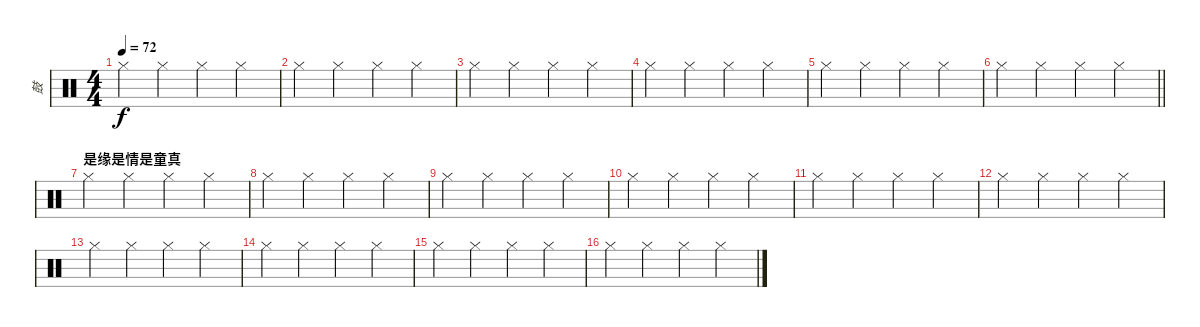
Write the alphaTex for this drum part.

\track ("鼓" "鼓") {instrument percussion}
\staff {score}
\articulation defaults
\ts (4 4)
\tempo 72
\clef neutral
\ks c "Hi-Hat (closed)".4{dy f} "Hi-Hat (closed)".4 "Hi-Hat (closed)".4 "Hi-Hat (closed)".4
|
"Hi-Hat (closed)".4 "Hi-Hat (closed)".4 "Hi-Hat (closed)".4 "Hi-Hat (closed)".4 |
"Hi-Hat (closed)".4 "Hi-Hat (closed)".4 "Hi-Hat (closed)".4 "Hi-Hat (closed)".4 |
"Hi-Hat (closed)".4 "Hi-Hat (closed)".4 "Hi-Hat (closed)".4 "Hi-Hat (closed)".4 |
"Hi-Hat (closed)".4 "Hi-Hat (closed)".4 "Hi-Hat (closed)".4 "Hi-Hat (closed)".4 |
\barLineRight lightlight "Hi-Hat (closed)".4 "Hi-Hat (closed)".4 "Hi-Hat (closed)".4 "Hi-Hat (closed)".4
|
\section ("" "是缘是情是童真")
"Hi-Hat (closed)".4 "Hi-Hat (closed)".4 "Hi-Hat (closed)".4 "Hi-Hat (closed)".4 |
"Hi-Hat (closed)".4 "Hi-Hat (closed)".4 "Hi-Hat (closed)".4 "Hi-Hat (closed)".4 |
"Hi-Hat (closed)".4 "Hi-Hat (closed)".4 "Hi-Hat (closed)".4 "Hi-Hat (closed)".4 |
"Hi-Hat (closed)".4 "Hi-Hat (closed)".4 "Hi-Hat (closed)".4 "Hi-Hat (closed)".4 |
"Hi-Hat (closed)".4 "Hi-Hat (closed)".4 "Hi-Hat (closed)".4 "Hi-Hat (closed)".4 |
"Hi-Hat (closed)".4 "Hi-Hat (closed)".4 "Hi-Hat (closed)".4 "Hi-Hat (closed)".4 |
"Hi-Hat (closed)".4 "Hi-Hat (closed)".4 "Hi-Hat (closed)".4 "Hi-Hat (closed)".4 |
"Hi-Hat (closed)".4 "Hi-Hat (closed)".4 "Hi-Hat (closed)".4 "Hi-Hat (closed)".4 |
"Hi-Hat (closed)".4 "Hi-Hat (closed)".4 "Hi-Hat (closed)".4 "Hi-Hat (closed)".4 |
"Hi-Hat (closed)".4 "Hi-Hat (closed)".4 "Hi-Hat (closed)".4 "Hi-Hat (closed)".4
